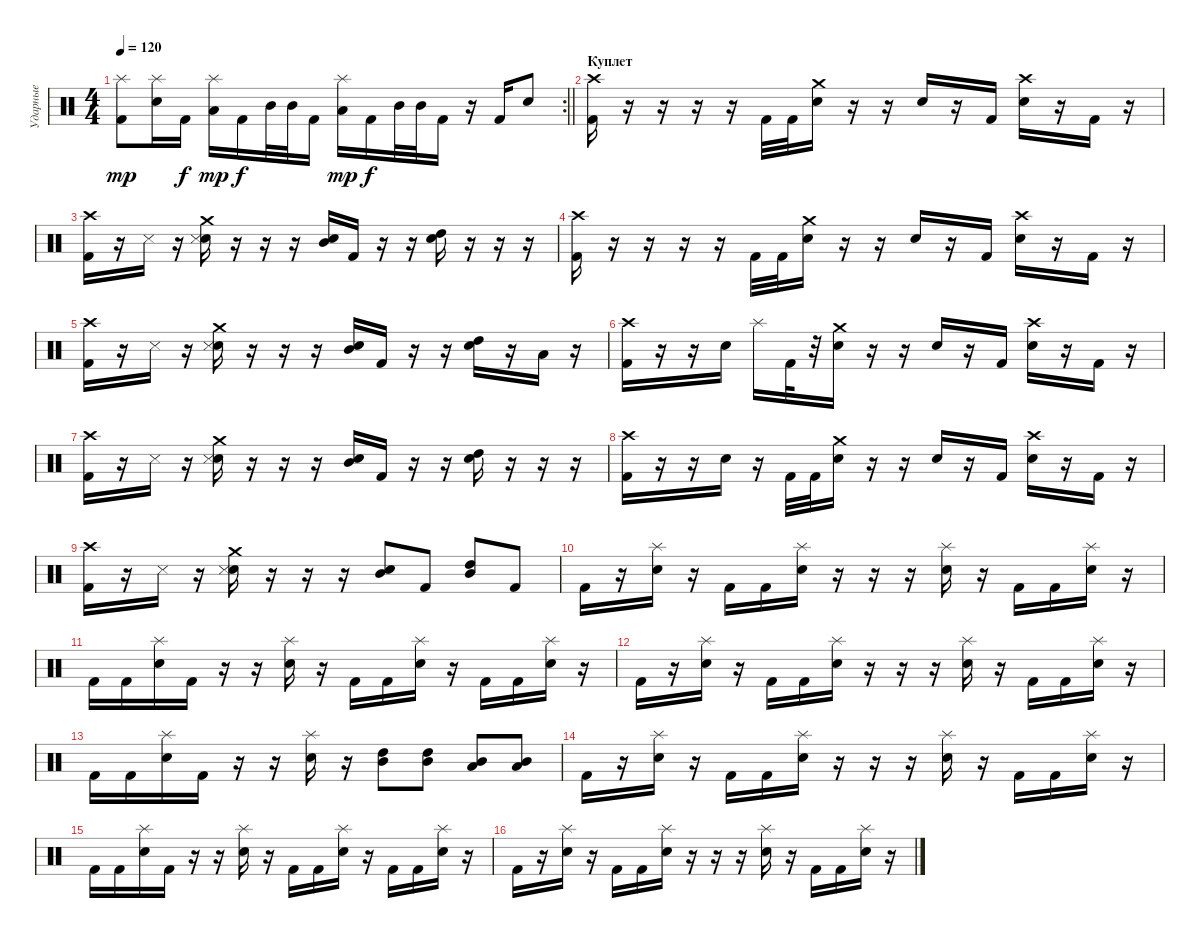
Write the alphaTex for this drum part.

\track ("Ударные" "Ударные") {instrument percussion}
\staff {score}
\articulation defaults
\rc 2
\ts (4 4)
\tempo 120
\clef neutral
\barLineRight lightlight
\ks c
("Splash (hit)" "Kick (hit) 2").8{dy mp} ("Splash (hit)" "Electric Snare (hit)").16 "Kick (hit) 2".16{dy f} ("Splash (hit)" "Low Tom (hit)").16{dy mp} "Kick (hit) 2".16{dy f} "Mid Tom (hit)".32 "Mid Tom (hit)".32 "Kick (hit) 2".16 ("Splash (hit)" "Low Tom (hit)").16{dy mp} "Kick (hit) 2".16{dy f} "Mid Tom (hit)".32 "Mid Tom (hit)".32 "Kick (hit) 2".16 r.16 "Kick (hit) 2".16 "Electric Snare (hit)".8 |
\section ("" "Куплет")
("Crash high (hit)" "Kick (hit) 2").16 r.16 r.16 r.16 r.16 "Kick (hit) 2".32 "Kick (hit) 2".32 ("Crash medium (hit)" "Electric Snare (hit)").16 r.16 r.16 "Electric Snare (hit)".16 r.16 "Kick (hit) 2".16 ("Crash high (hit)" "Electric Snare (hit)").16 r.16 "Kick (hit) 2".16 r.16 |
("Crash high (hit)" "Kick (hit) 2").16 r.16 "Metronome (hit)".16 r.16 ("Crash medium (hit)" "Electric Snare (hit)" "Metronome (hit)").16 r.16 r.16 r.16 ("Electric Snare (hit)" "Mid Tom (hit)").16 "Kick (hit) 2".16 r.16 r.16 ("Electric Snare (hit)" "High Tom (hit)").16 r.16 r.16 r.16 |
("Crash high (hit)" "Kick (hit) 2").16 r.16 r.16 r.16 r.16 "Kick (hit) 2".32 "Kick (hit) 2".32 ("Crash medium (hit)" "Electric Snare (hit)").16 r.16 r.16 "Electric Snare (hit)".16 r.16 "Kick (hit) 2".16 ("Crash high (hit)" "Electric Snare (hit)").16 r.16 "Kick (hit) 2".16 r.16 |
("Crash high (hit)" "Kick (hit) 2").16 r.16 "Metronome (hit)".16 r.16 ("Crash medium (hit)" "Electric Snare (hit)" "Metronome (hit)").16 r.16 r.16 r.16 ("Electric Snare (hit)" "Mid Tom (hit)").16 "Kick (hit) 2".16 r.16 r.16 ("Electric Snare (hit)" "High Tom (hit)").16 r.16 "Low Tom (hit)".16 r.16 |
("Crash high (hit)" "Kick (hit) 2").16 r.16 r.16 "Electric Snare (hit)".16 "Splash (hit)".16 "Kick (hit) 2".32 r.32 ("Crash medium (hit)" "Electric Snare (hit)").16 r.16 r.16 "Electric Snare (hit)".16 r.16 "Kick (hit) 2".16 ("Crash high (hit)" "Electric Snare (hit)").16 r.16 "Kick (hit) 2".16 r.16 |
("Crash high (hit)" "Kick (hit) 2").16 r.16 "Metronome (hit)".16 r.16 ("Crash medium (hit)" "Electric Snare (hit)" "Metronome (hit)").16 r.16 r.16 r.16 ("Electric Snare (hit)" "Mid Tom (hit)").16 "Kick (hit) 2".16 r.16 r.16 ("Electric Snare (hit)" "High Tom (hit)").16 r.16 r.16 r.16 |
("Crash high (hit)" "Kick (hit) 2").16 r.16 r.16 "Electric Snare (hit)".16 r.16 "Kick (hit) 2".32 "Kick (hit) 2".32 ("Crash medium (hit)" "Electric Snare (hit)").16 r.16 r.16 "Electric Snare (hit)".16 r.16 "Kick (hit) 2".16 ("Crash high (hit)" "Electric Snare (hit)").16 r.16 "Kick (hit) 2".16 r.16 |
("Crash high (hit)" "Kick (hit) 2").16 r.16 "Metronome (hit)".16 r.16 ("Crash medium (hit)" "Electric Snare (hit)" "Metronome (hit)").16 r.16 r.16 r.16 ("Electric Snare (hit)" "Mid Tom (hit)").8 "Kick (hit) 2".8 ("High Tom (hit)" "Mid Tom (hit)").8 "Kick (hit) 2".8 |
"Kick (hit) 2".16 r.16 ("Splash (hit)" "Electric Snare (hit)").16 r.16 "Kick (hit) 2".16 "Kick (hit) 2".16 ("Splash (hit)" "Electric Snare (hit)").16 r.16 r.16 r.16 ("Splash (hit)" "Electric Snare (hit)").16 r.16 "Kick (hit) 2".16 "Kick (hit) 2".16 ("Splash (hit)" "Electric Snare (hit)").16 r.16 |
"Kick (hit) 2".16 "Kick (hit) 2".16 ("Splash (hit)" "Electric Snare (hit)").16 "Kick (hit) 2".16 r.16 r.16 ("Splash (hit)" "Electric Snare (hit)").16 r.16 "Kick (hit) 2".16 "Kick (hit) 2".16 ("Splash (hit)" "Electric Snare (hit)").16 r.16 "Kick (hit) 2".16 "Kick (hit) 2".16 ("Splash (hit)" "Electric Snare (hit)").16 r.16 |
"Kick (hit) 2".16 r.16 ("Splash (hit)" "Electric Snare (hit)").16 r.16 "Kick (hit) 2".16 "Kick (hit) 2".16 ("Splash (hit)" "Electric Snare (hit)").16 r.16 r.16 r.16 ("Splash (hit)" "Electric Snare (hit)").16 r.16 "Kick (hit) 2".16 "Kick (hit) 2".16 ("Splash (hit)" "Electric Snare (hit)").16 r.16 |
"Kick (hit) 2".16 "Kick (hit) 2".16 ("Splash (hit)" "Electric Snare (hit)").16 "Kick (hit) 2".16 r.16 r.16 ("Splash (hit)" "Electric Snare (hit)").16 r.16 ("High Tom (hit)" "Mid Tom (hit)").8 ("High Tom (hit)" "Mid Tom (hit)").8 ("Mid Tom (hit)" "Low Tom (hit)").8 ("Mid Tom (hit)" "Low Tom (hit)").8 |
"Kick (hit) 2".16 r.16 ("Splash (hit)" "Electric Snare (hit)").16 r.16 "Kick (hit) 2".16 "Kick (hit) 2".16 ("Splash (hit)" "Electric Snare (hit)").16 r.16 r.16 r.16 ("Splash (hit)" "Electric Snare (hit)").16 r.16 "Kick (hit) 2".16 "Kick (hit) 2".16 ("Splash (hit)" "Electric Snare (hit)").16 r.16 |
"Kick (hit) 2".16 "Kick (hit) 2".16 ("Splash (hit)" "Electric Snare (hit)").16 "Kick (hit) 2".16 r.16 r.16 ("Splash (hit)" "Electric Snare (hit)").16 r.16 "Kick (hit) 2".16 "Kick (hit) 2".16 ("Splash (hit)" "Electric Snare (hit)").16 r.16 "Kick (hit) 2".16 "Kick (hit) 2".16 ("Splash (hit)" "Electric Snare (hit)").16 r.16 |
"Kick (hit) 2".16 r.16 ("Splash (hit)" "Electric Snare (hit)").16 r.16 "Kick (hit) 2".16 "Kick (hit) 2".16 ("Splash (hit)" "Electric Snare (hit)").16 r.16 r.16 r.16 ("Splash (hit)" "Electric Snare (hit)").16 r.16 "Kick (hit) 2".16 "Kick (hit) 2".16 ("Splash (hit)" "Electric Snare (hit)").16 r.16
